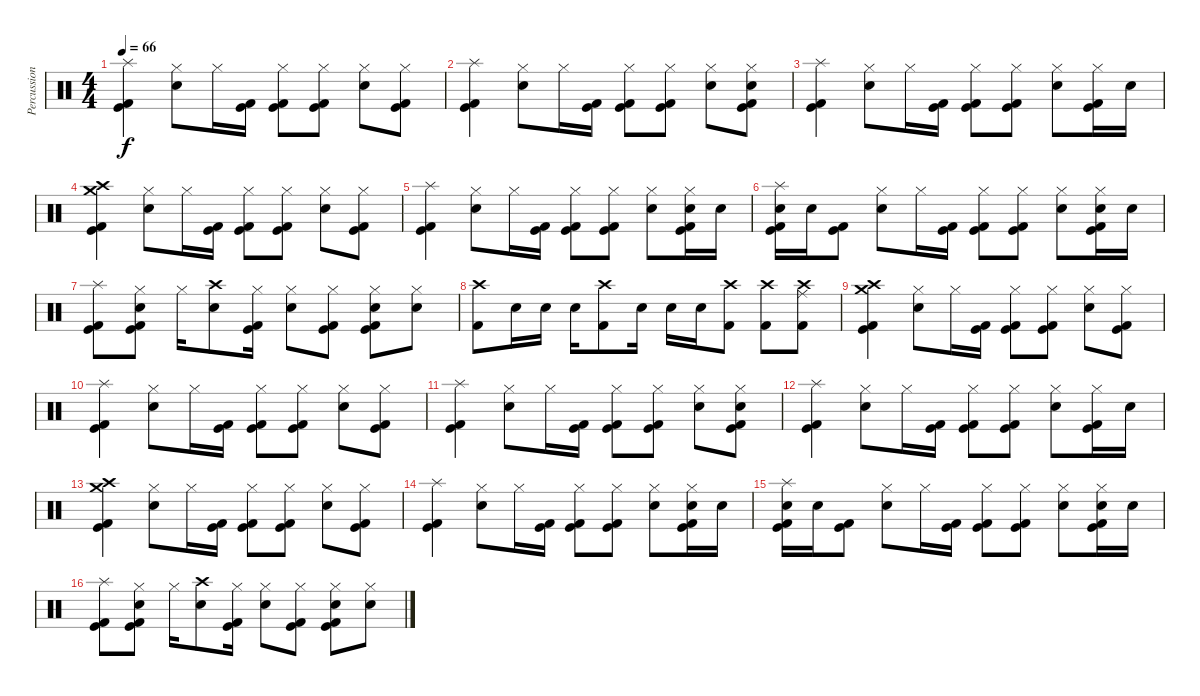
\track ("Percussion" "Percussion") {instrument percussion}
\staff {score}
\articulation defaults
\ts (4 4)
\tempo 66
\clef neutral
\ks c
("Splash (hit)" "Kick (hit) 2" "Kick (hit)").4{dy f} ("Hi-Hat (closed)" "Electric Snare (hit)").8 "Hi-Hat (closed)".16 ("Kick (hit) 2" "Kick (hit)").16 ("Hi-Hat (closed)" "Kick (hit) 2" "Kick (hit)").8 ("Hi-Hat (closed)" "Kick (hit)" "Kick (hit) 2").8 ("Hi-Hat (closed)" "Electric Snare (hit)").8 ("Hi-Hat (closed)" "Kick (hit) 2" "Kick (hit)").8 |
("Splash (hit)" "Kick (hit) 2" "Kick (hit)").4 ("Hi-Hat (closed)" "Electric Snare (hit)").8 "Hi-Hat (closed)".16 ("Kick (hit) 2" "Kick (hit)").16 ("Hi-Hat (closed)" "Kick (hit) 2" "Kick (hit)").8 ("Hi-Hat (closed)" "Kick (hit)" "Kick (hit) 2").8 ("Hi-Hat (closed)" "Electric Snare (hit)").8 ("Hi-Hat (closed)" "Electric Snare (hit)" "Kick (hit) 2" "Kick (hit)").8 |
("Splash (hit)" "Kick (hit) 2" "Kick (hit)").4 ("Hi-Hat (closed)" "Electric Snare (hit)").8 "Hi-Hat (closed)".16 ("Kick (hit) 2" "Kick (hit)").16 ("Hi-Hat (closed)" "Kick (hit) 2" "Kick (hit)").8 ("Hi-Hat (closed)" "Kick (hit)" "Kick (hit) 2").8 ("Hi-Hat (closed)" "Electric Snare (hit)").8 ("Hi-Hat (closed)" "Kick (hit) 2" "Kick (hit)").16 "Electric Snare (hit)".16 |
("Crash medium (hit)" "Crash high (hit)" "Kick (hit) 2" "Kick (hit)").4 ("Hi-Hat (closed)" "Electric Snare (hit)").8 "Hi-Hat (closed)".16 ("Kick (hit) 2" "Kick (hit)").16 ("Hi-Hat (closed)" "Kick (hit) 2" "Kick (hit)").8 ("Hi-Hat (closed)" "Kick (hit)" "Kick (hit) 2").8 ("Hi-Hat (closed)" "Electric Snare (hit)").8 ("Hi-Hat (closed)" "Kick (hit) 2" "Kick (hit)").8 |
("Splash (hit)" "Kick (hit) 2" "Kick (hit)").4 ("Hi-Hat (closed)" "Electric Snare (hit)").8 "Hi-Hat (closed)".16 ("Kick (hit) 2" "Kick (hit)").16 ("Hi-Hat (closed)" "Kick (hit) 2" "Kick (hit)").8 ("Hi-Hat (closed)" "Kick (hit)" "Kick (hit) 2").8 ("Hi-Hat (closed)" "Electric Snare (hit)").8 ("Hi-Hat (closed)" "Electric Snare (hit)" "Kick (hit) 2" "Kick (hit)").16 "Electric Snare (hit)".16 |
("Splash (hit)" "Electric Snare (hit)" "Kick (hit) 2" "Kick (hit)").16 "Electric Snare (hit)".16 ("Kick (hit) 2" "Kick (hit)").8 ("Hi-Hat (closed)" "Electric Snare (hit)").8 "Hi-Hat (closed)".16 ("Kick (hit) 2" "Kick (hit)").16 ("Hi-Hat (closed)" "Kick (hit) 2" "Kick (hit)").8 ("Hi-Hat (closed)" "Kick (hit)" "Kick (hit) 2").8 ("Hi-Hat (closed)" "Electric Snare (hit)").8 ("Hi-Hat (closed)" "Electric Snare (hit)" "Kick (hit) 2" "Kick (hit)").16 "Electric Snare (hit)".16 |
("Splash (hit)" "Kick (hit) 2" "Kick (hit)").8 ("Hi-Hat (closed)" "Electric Snare (hit)" "Kick (hit) 2" "Kick (hit)").8 "Hi-Hat (closed)".16 ("Crash high (hit)" "Electric Snare (hit)").8 ("Hi-Hat (closed)" "Kick (hit)" "Kick (hit) 2").16 ("Hi-Hat (closed)" "Electric Snare (hit)").8 ("Hi-Hat (closed)" "Kick (hit) 2" "Kick (hit)").8 ("Hi-Hat (closed)" "Electric Snare (hit)" "Kick (hit)" "Kick (hit) 2").8 ("Hi-Hat (closed)" "Electric Snare (hit)").8 |
("Crash high (hit)" "Kick (hit) 2").8 "Snare (hit) 2".16 "Snare (hit) 2".16 "Snare (hit) 2".16 ("Crash high (hit)" "Kick (hit) 2").8 "Snare (hit) 2".16 "Snare (hit) 2".16 "Snare (hit) 2".16 ("Crash high (hit)" "Kick (hit) 2").8 ("Crash high (hit)" "Kick (hit) 2").8 ("Ride (middle)" "Crash high (hit)" "Kick (hit) 2").8 |
("Crash medium (hit)" "Crash high (hit)" "Kick (hit) 2" "Kick (hit)").4 ("Hi-Hat (closed)" "Electric Snare (hit)").8 "Hi-Hat (closed)".16 ("Kick (hit) 2" "Kick (hit)").16 ("Hi-Hat (closed)" "Kick (hit) 2" "Kick (hit)").8 ("Hi-Hat (closed)" "Kick (hit)" "Kick (hit) 2").8 ("Hi-Hat (closed)" "Electric Snare (hit)").8 ("Hi-Hat (closed)" "Kick (hit) 2" "Kick (hit)").8 |
("Splash (hit)" "Kick (hit) 2" "Kick (hit)").4 ("Hi-Hat (closed)" "Electric Snare (hit)").8 "Hi-Hat (closed)".16 ("Kick (hit) 2" "Kick (hit)").16 ("Hi-Hat (closed)" "Kick (hit) 2" "Kick (hit)").8 ("Hi-Hat (closed)" "Kick (hit)" "Kick (hit) 2").8 ("Hi-Hat (closed)" "Electric Snare (hit)").8 ("Hi-Hat (closed)" "Kick (hit) 2" "Kick (hit)").8 |
("Splash (hit)" "Kick (hit) 2" "Kick (hit)").4 ("Hi-Hat (closed)" "Electric Snare (hit)").8 "Hi-Hat (closed)".16 ("Kick (hit) 2" "Kick (hit)").16 ("Hi-Hat (closed)" "Kick (hit) 2" "Kick (hit)").8 ("Hi-Hat (closed)" "Kick (hit)" "Kick (hit) 2").8 ("Hi-Hat (closed)" "Electric Snare (hit)").8 ("Hi-Hat (closed)" "Electric Snare (hit)" "Kick (hit) 2" "Kick (hit)").8 |
("Splash (hit)" "Kick (hit) 2" "Kick (hit)").4 ("Hi-Hat (closed)" "Electric Snare (hit)").8 "Hi-Hat (closed)".16 ("Kick (hit) 2" "Kick (hit)").16 ("Hi-Hat (closed)" "Kick (hit) 2" "Kick (hit)").8 ("Hi-Hat (closed)" "Kick (hit)" "Kick (hit) 2").8 ("Hi-Hat (closed)" "Electric Snare (hit)").8 ("Hi-Hat (closed)" "Kick (hit) 2" "Kick (hit)").16 "Electric Snare (hit)".16 |
("Crash medium (hit)" "Crash high (hit)" "Kick (hit) 2" "Kick (hit)").4 ("Hi-Hat (closed)" "Electric Snare (hit)").8 "Hi-Hat (closed)".16 ("Kick (hit) 2" "Kick (hit)").16 ("Hi-Hat (closed)" "Kick (hit) 2" "Kick (hit)").8 ("Hi-Hat (closed)" "Kick (hit)" "Kick (hit) 2").8 ("Hi-Hat (closed)" "Electric Snare (hit)").8 ("Hi-Hat (closed)" "Kick (hit) 2" "Kick (hit)").8 |
("Splash (hit)" "Kick (hit) 2" "Kick (hit)").4 ("Hi-Hat (closed)" "Electric Snare (hit)").8 "Hi-Hat (closed)".16 ("Kick (hit) 2" "Kick (hit)").16 ("Hi-Hat (closed)" "Kick (hit) 2" "Kick (hit)").8 ("Hi-Hat (closed)" "Kick (hit)" "Kick (hit) 2").8 ("Hi-Hat (closed)" "Electric Snare (hit)").8 ("Hi-Hat (closed)" "Electric Snare (hit)" "Kick (hit) 2" "Kick (hit)").16 "Electric Snare (hit)".16 |
("Splash (hit)" "Electric Snare (hit)" "Kick (hit) 2" "Kick (hit)").16 "Electric Snare (hit)".16 ("Kick (hit) 2" "Kick (hit)").8 ("Hi-Hat (closed)" "Electric Snare (hit)").8 "Hi-Hat (closed)".16 ("Kick (hit) 2" "Kick (hit)").16 ("Hi-Hat (closed)" "Kick (hit) 2" "Kick (hit)").8 ("Hi-Hat (closed)" "Kick (hit)" "Kick (hit) 2").8 ("Hi-Hat (closed)" "Electric Snare (hit)").8 ("Hi-Hat (closed)" "Electric Snare (hit)" "Kick (hit) 2" "Kick (hit)").16 "Electric Snare (hit)".16 |
("Splash (hit)" "Kick (hit) 2" "Kick (hit)").8 ("Hi-Hat (closed)" "Electric Snare (hit)" "Kick (hit) 2" "Kick (hit)").8 "Hi-Hat (closed)".16 ("Crash high (hit)" "Electric Snare (hit)").8 ("Hi-Hat (closed)" "Kick (hit)" "Kick (hit) 2").16 ("Hi-Hat (closed)" "Electric Snare (hit)").8 ("Hi-Hat (closed)" "Kick (hit) 2" "Kick (hit)").8 ("Hi-Hat (closed)" "Electric Snare (hit)" "Kick (hit)" "Kick (hit) 2").8 ("Hi-Hat (closed)" "Electric Snare (hit)").8
